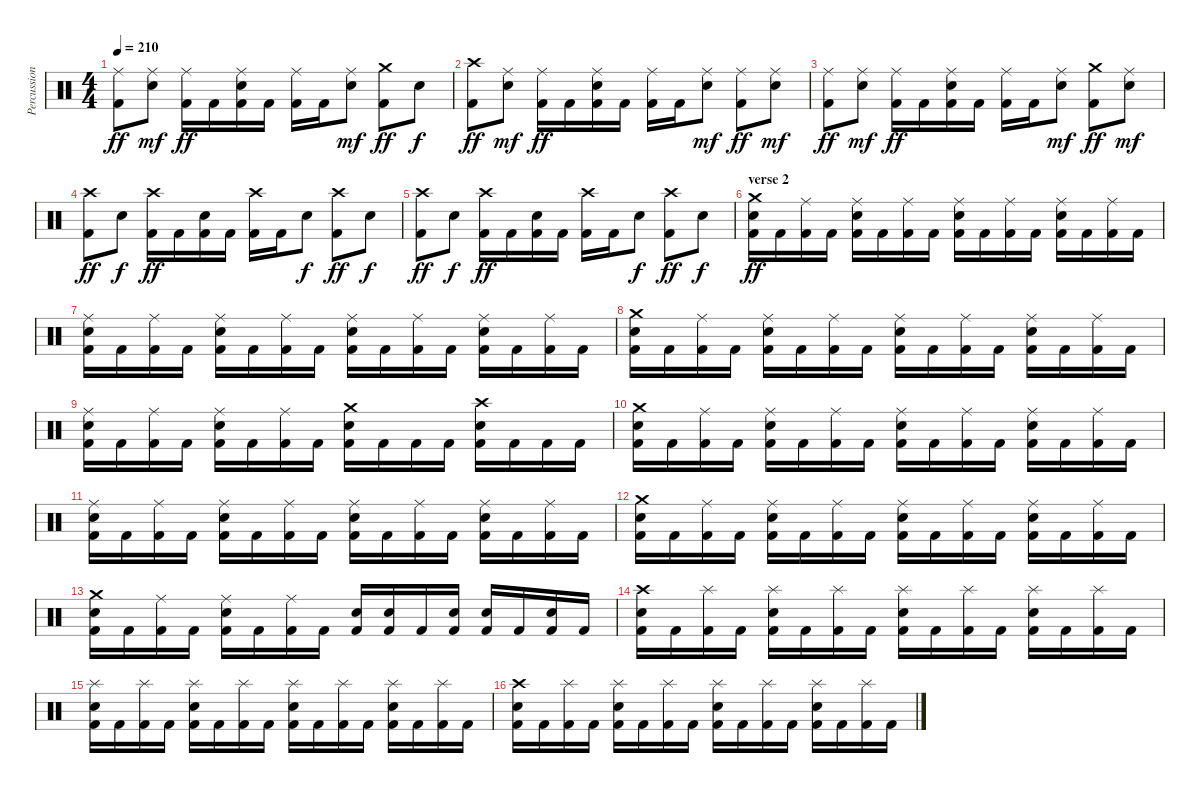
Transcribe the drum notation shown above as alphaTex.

\track ("Percussion" "Percussion") {instrument percussion}
\staff {score}
\articulation defaults
\ts (4 4)
\tempo 210
\clef neutral
\ks c
("Ride (middle)" "Kick (hit) 2").8{dy ff} ("Ride (middle)" "Snare (hit) 2").8{dy mf} ("Ride (middle)" "Kick (hit) 2").16{dy ff} "Kick (hit) 2".16 ("Ride (middle)" "Snare (hit) 2" "Kick (hit) 2").16 "Kick (hit) 2".16 ("Ride (middle)" "Kick (hit) 2").16 "Kick (hit) 2".16 ("Ride (middle)" "Snare (hit) 2").8{dy mf} ("Crash medium (hit)" "Kick (hit) 2").8{dy ff} "Snare (hit) 2".8{dy f} |
("Crash high (hit)" "Kick (hit) 2").8{dy ff} ("Ride (middle)" "Snare (hit) 2").8{dy mf} ("Ride (middle)" "Kick (hit) 2").16{dy ff} "Kick (hit) 2".16 ("Ride (middle)" "Snare (hit) 2" "Kick (hit) 2").16 "Kick (hit) 2".16 ("Ride (middle)" "Kick (hit) 2").16 "Kick (hit) 2".16 ("Ride (middle)" "Snare (hit) 2").8{dy mf} ("Ride (middle)" "Kick (hit) 2").8{dy ff} ("Ride (middle)" "Snare (hit) 2").8{dy mf} |
("Ride (middle)" "Kick (hit) 2").8{dy ff} ("Ride (middle)" "Snare (hit) 2").8{dy mf} ("Ride (middle)" "Kick (hit) 2").16{dy ff} "Kick (hit) 2".16 ("Ride (middle)" "Snare (hit) 2" "Kick (hit) 2").16 "Kick (hit) 2".16 ("Ride (middle)" "Kick (hit) 2").16 "Kick (hit) 2".16 ("Ride (middle)" "Snare (hit) 2").8{dy mf} ("Crash medium (hit)" "Kick (hit) 2").8{dy ff} ("Ride (middle)" "Snare (hit) 2").8{dy mf} |
("Crash high (hit)" "Kick (hit) 2").8{dy ff} "Snare (hit) 2".8{dy f} ("Crash high (hit)" "Kick (hit) 2").16{dy ff} "Kick (hit) 2".16 ("Snare (hit) 2" "Kick (hit) 2").16 "Kick (hit) 2".16 ("Crash high (hit)" "Kick (hit) 2").16 "Kick (hit) 2".16 "Snare (hit) 2".8{dy f} ("Crash high (hit)" "Kick (hit) 2").8{dy ff} "Snare (hit) 2".8{dy f} |
("Crash high (hit)" "Kick (hit) 2").8{dy ff} "Snare (hit) 2".8{dy f} ("Crash high (hit)" "Kick (hit) 2").16{dy ff} "Kick (hit) 2".16 ("Snare (hit) 2" "Kick (hit) 2").16 "Kick (hit) 2".16 ("Crash high (hit)" "Kick (hit) 2").16 "Kick (hit) 2".16 "Snare (hit) 2".8{dy f} ("Crash high (hit)" "Kick (hit) 2").8{dy ff} "Snare (hit) 2".8{dy f} |
\section ("" "verse 2")
("Crash medium (hit)" "Snare (hit) 2" "Kick (hit) 2").16{dy ff} "Kick (hit) 2".16 ("Ride (middle)" "Kick (hit) 2").16 "Kick (hit) 2".16 ("Ride (middle)" "Snare (hit) 2" "Kick (hit) 2").16 "Kick (hit) 2".16 ("Ride (middle)" "Kick (hit) 2").16 "Kick (hit) 2".16 ("Ride (middle)" "Snare (hit) 2" "Kick (hit) 2").16 "Kick (hit) 2".16 ("Ride (middle)" "Kick (hit) 2").16 "Kick (hit) 2".16 ("Ride (middle)" "Snare (hit) 2" "Kick (hit) 2").16 "Kick (hit) 2".16 ("Ride (middle)" "Kick (hit) 2").16 "Kick (hit) 2".16 |
("Ride (middle)" "Snare (hit) 2" "Kick (hit) 2").16 "Kick (hit) 2".16 ("Ride (middle)" "Kick (hit) 2").16 "Kick (hit) 2".16 ("Ride (middle)" "Snare (hit) 2" "Kick (hit) 2").16 "Kick (hit) 2".16 ("Ride (middle)" "Kick (hit) 2").16 "Kick (hit) 2".16 ("Ride (middle)" "Snare (hit) 2" "Kick (hit) 2").16 "Kick (hit) 2".16 ("Ride (middle)" "Kick (hit) 2").16 "Kick (hit) 2".16 ("Ride (middle)" "Snare (hit) 2" "Kick (hit) 2").16 "Kick (hit) 2".16 ("Ride (middle)" "Kick (hit) 2").16 "Kick (hit) 2".16 |
("Crash medium (hit)" "Snare (hit) 2" "Kick (hit) 2").16 "Kick (hit) 2".16 ("Ride (middle)" "Kick (hit) 2").16 "Kick (hit) 2".16 ("Ride (middle)" "Snare (hit) 2" "Kick (hit) 2").16 "Kick (hit) 2".16 ("Ride (middle)" "Kick (hit) 2").16 "Kick (hit) 2".16 ("Ride (middle)" "Snare (hit) 2" "Kick (hit) 2").16 "Kick (hit) 2".16 ("Ride (middle)" "Kick (hit) 2").16 "Kick (hit) 2".16 ("Ride (middle)" "Snare (hit) 2" "Kick (hit) 2").16 "Kick (hit) 2".16 ("Ride (middle)" "Kick (hit) 2").16 "Kick (hit) 2".16 |
("Ride (middle)" "Snare (hit) 2" "Kick (hit) 2").16 "Kick (hit) 2".16 ("Ride (middle)" "Kick (hit) 2").16 "Kick (hit) 2".16 ("Ride (middle)" "Snare (hit) 2" "Kick (hit) 2").16 "Kick (hit) 2".16 ("Ride (middle)" "Kick (hit) 2").16 "Kick (hit) 2".16 ("Crash medium (hit)" "Snare (hit) 2" "Kick (hit) 2").16 "Kick (hit) 2".16 "Kick (hit) 2".16 "Kick (hit) 2".16 ("Crash high (hit)" "Snare (hit) 2" "Kick (hit) 2").16 "Kick (hit) 2".16 "Kick (hit) 2".16 "Kick (hit) 2".16 |
("Crash medium (hit)" "Snare (hit) 2" "Kick (hit) 2").16 "Kick (hit) 2".16 ("Ride (middle)" "Kick (hit) 2").16 "Kick (hit) 2".16 ("Ride (middle)" "Snare (hit) 2" "Kick (hit) 2").16 "Kick (hit) 2".16 ("Ride (middle)" "Kick (hit) 2").16 "Kick (hit) 2".16 ("Ride (middle)" "Snare (hit) 2" "Kick (hit) 2").16 "Kick (hit) 2".16 ("Ride (middle)" "Kick (hit) 2").16 "Kick (hit) 2".16 ("Ride (middle)" "Snare (hit) 2" "Kick (hit) 2").16 "Kick (hit) 2".16 ("Ride (middle)" "Kick (hit) 2").16 "Kick (hit) 2".16 |
("Ride (middle)" "Snare (hit) 2" "Kick (hit) 2").16 "Kick (hit) 2".16 ("Ride (middle)" "Kick (hit) 2").16 "Kick (hit) 2".16 ("Ride (middle)" "Snare (hit) 2" "Kick (hit) 2").16 "Kick (hit) 2".16 ("Ride (middle)" "Kick (hit) 2").16 "Kick (hit) 2".16 ("Ride (middle)" "Snare (hit) 2" "Kick (hit) 2").16 "Kick (hit) 2".16 ("Ride (middle)" "Kick (hit) 2").16 "Kick (hit) 2".16 ("Ride (middle)" "Snare (hit) 2" "Kick (hit) 2").16 "Kick (hit) 2".16 ("Ride (middle)" "Kick (hit) 2").16 "Kick (hit) 2".16 |
("Crash medium (hit)" "Snare (hit) 2" "Kick (hit) 2").16 "Kick (hit) 2".16 ("Ride (middle)" "Kick (hit) 2").16 "Kick (hit) 2".16 ("Ride (middle)" "Snare (hit) 2" "Kick (hit) 2").16 "Kick (hit) 2".16 ("Ride (middle)" "Kick (hit) 2").16 "Kick (hit) 2".16 ("Ride (middle)" "Snare (hit) 2" "Kick (hit) 2").16 "Kick (hit) 2".16 ("Ride (middle)" "Kick (hit) 2").16 "Kick (hit) 2".16 ("Ride (middle)" "Snare (hit) 2" "Kick (hit) 2").16 "Kick (hit) 2".16 ("Ride (middle)" "Kick (hit) 2").16 "Kick (hit) 2".16 |
("Crash medium (hit)" "Snare (hit) 2" "Kick (hit) 2").16 "Kick (hit) 2".16 ("Ride (middle)" "Kick (hit) 2").16 "Kick (hit) 2".16 ("Ride (middle)" "Snare (hit) 2" "Kick (hit) 2").16 "Kick (hit) 2".16 ("Ride (middle)" "Kick (hit) 2").16 "Kick (hit) 2".16 ("Snare (hit) 2" "Kick (hit) 2").16 ("Snare (hit) 2" "Kick (hit) 2").16 "Kick (hit) 2".16 ("Snare (hit) 2" "Kick (hit) 2").16 ("Snare (hit) 2" "Kick (hit) 2").16 "Kick (hit) 2".16 ("Snare (hit) 2" "Kick (hit) 2").16 "Kick (hit) 2".16 |
("Crash high (hit)" "Snare (hit) 2" "Kick (hit) 2").16 "Kick (hit) 2".16 ("Splash (hit)" "Kick (hit) 2").16 "Kick (hit) 2".16 ("Splash (hit)" "Snare (hit) 2" "Kick (hit) 2").16 "Kick (hit) 2".16 ("Splash (hit)" "Kick (hit) 2").16 "Kick (hit) 2".16 ("Splash (hit)" "Snare (hit) 2" "Kick (hit) 2").16 "Kick (hit) 2".16 ("Splash (hit)" "Kick (hit) 2").16 "Kick (hit) 2".16 ("Splash (hit)" "Snare (hit) 2" "Kick (hit) 2").16 "Kick (hit) 2".16 ("Splash (hit)" "Kick (hit) 2").16 "Kick (hit) 2".16 |
("Splash (hit)" "Snare (hit) 2" "Kick (hit) 2").16 "Kick (hit) 2".16 ("Splash (hit)" "Kick (hit) 2").16 "Kick (hit) 2".16 ("Splash (hit)" "Snare (hit) 2" "Kick (hit) 2").16 "Kick (hit) 2".16 ("Splash (hit)" "Kick (hit) 2").16 "Kick (hit) 2".16 ("Splash (hit)" "Snare (hit) 2" "Kick (hit) 2").16 "Kick (hit) 2".16 ("Splash (hit)" "Kick (hit) 2").16 "Kick (hit) 2".16 ("Splash (hit)" "Snare (hit) 2" "Kick (hit) 2").16 "Kick (hit) 2".16 ("Splash (hit)" "Kick (hit) 2").16 "Kick (hit) 2".16 |
("Crash high (hit)" "Snare (hit) 2" "Kick (hit) 2").16 "Kick (hit) 2".16 ("Splash (hit)" "Kick (hit) 2").16 "Kick (hit) 2".16 ("Splash (hit)" "Snare (hit) 2" "Kick (hit) 2").16 "Kick (hit) 2".16 ("Splash (hit)" "Kick (hit) 2").16 "Kick (hit) 2".16 ("Splash (hit)" "Snare (hit) 2" "Kick (hit) 2").16 "Kick (hit) 2".16 ("Splash (hit)" "Kick (hit) 2").16 "Kick (hit) 2".16 ("Splash (hit)" "Snare (hit) 2" "Kick (hit) 2").16 "Kick (hit) 2".16 ("Splash (hit)" "Kick (hit) 2").16 "Kick (hit) 2".16
